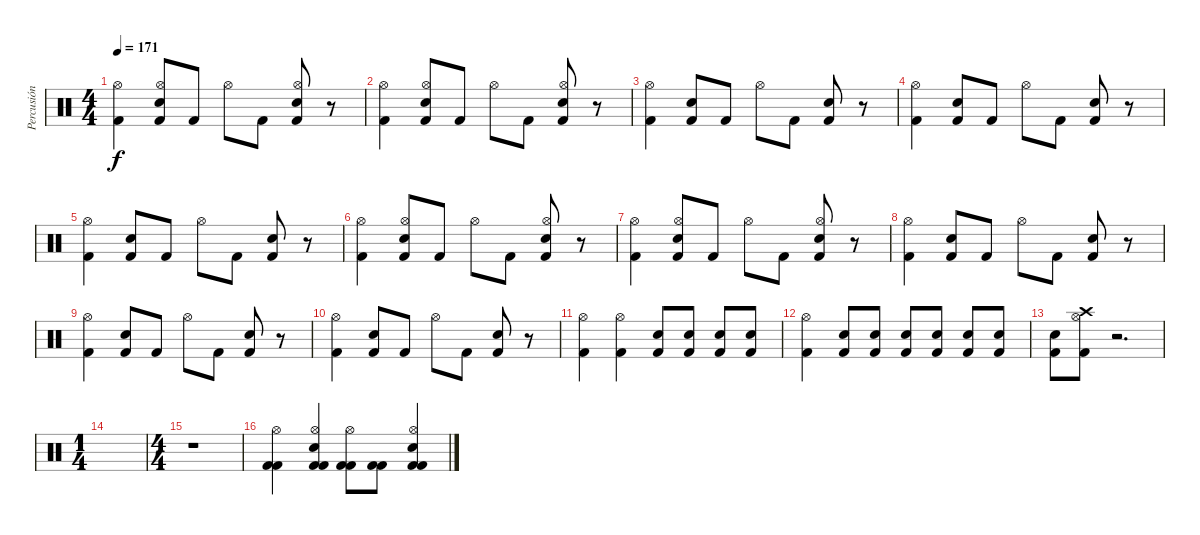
\track ("Percusión" "Percusión") {instrument percussion}
\staff {score}
\articulation defaults
\ts (4 4)
\tempo 171
\clef neutral
\ks c
("Kick (hit) 2" "Hi-Hat (open)").4{dy f} ("Kick (hit) 2" "Electric Snare (hit)" "Hi-Hat (open)").8 "Kick (hit) 2".8 "Hi-Hat (open)".8 "Kick (hit) 2".8 ("Kick (hit) 2" "Electric Snare (hit)" "Hi-Hat (open)").8 r.8 |
("Kick (hit) 2" "Hi-Hat (open)").4 ("Kick (hit) 2" "Electric Snare (hit)" "Hi-Hat (open)").8 "Kick (hit) 2".8 "Hi-Hat (open)".8 "Kick (hit) 2".8 ("Kick (hit) 2" "Electric Snare (hit)" "Hi-Hat (open)").8 r.8 |
("Kick (hit) 2" "Hi-Hat (open)").4 ("Kick (hit) 2" "Electric Snare (hit)").8 "Kick (hit) 2".8 "Hi-Hat (open)".8 "Kick (hit) 2".8 ("Kick (hit) 2" "Electric Snare (hit)").8 r.8 |
("Kick (hit) 2" "Hi-Hat (open)").4 ("Kick (hit) 2" "Electric Snare (hit)").8 "Kick (hit) 2".8 "Hi-Hat (open)".8 "Kick (hit) 2".8 ("Kick (hit) 2" "Electric Snare (hit)").8 r.8 |
("Kick (hit) 2" "Hi-Hat (open)").4 ("Kick (hit) 2" "Electric Snare (hit)").8 "Kick (hit) 2".8 "Hi-Hat (open)".8 "Kick (hit) 2".8 ("Kick (hit) 2" "Electric Snare (hit)").8 r.8 |
("Kick (hit) 2" "Hi-Hat (open)").4 ("Kick (hit) 2" "Electric Snare (hit)" "Hi-Hat (open)").8 "Kick (hit) 2".8 "Hi-Hat (open)".8 "Kick (hit) 2".8 ("Kick (hit) 2" "Electric Snare (hit)" "Hi-Hat (open)").8 r.8 |
("Kick (hit) 2" "Hi-Hat (open)").4 ("Kick (hit) 2" "Electric Snare (hit)" "Hi-Hat (open)").8 "Kick (hit) 2".8 "Hi-Hat (open)".8 "Kick (hit) 2".8 ("Kick (hit) 2" "Electric Snare (hit)" "Hi-Hat (open)").8 r.8 |
("Kick (hit) 2" "Hi-Hat (open)").4 ("Kick (hit) 2" "Electric Snare (hit)").8 "Kick (hit) 2".8 "Hi-Hat (open)".8 "Kick (hit) 2".8 ("Kick (hit) 2" "Electric Snare (hit)").8 r.8 |
("Kick (hit) 2" "Hi-Hat (open)").4 ("Kick (hit) 2" "Electric Snare (hit)").8 "Kick (hit) 2".8 "Hi-Hat (open)".8 "Kick (hit) 2".8 ("Kick (hit) 2" "Electric Snare (hit)").8 r.8 |
("Kick (hit) 2" "Hi-Hat (open)").4 ("Kick (hit) 2" "Electric Snare (hit)").8 "Kick (hit) 2".8 "Hi-Hat (open)".8 "Kick (hit) 2".8 ("Kick (hit) 2" "Electric Snare (hit)").8 r.8 |
("Kick (hit) 2" "Hi-Hat (open)").4 ("Kick (hit) 2" "Hi-Hat (open)").4 ("Kick (hit) 2" "Electric Snare (hit)").8 ("Kick (hit) 2" "Electric Snare (hit)").8 ("Kick (hit) 2" "Electric Snare (hit)").8 ("Kick (hit) 2" "Electric Snare (hit)").8 |
("Kick (hit) 2" "Hi-Hat (open)").4 ("Kick (hit) 2" "Electric Snare (hit)").8 ("Kick (hit) 2" "Electric Snare (hit)").8 ("Kick (hit) 2" "Electric Snare (hit)").8 ("Kick (hit) 2" "Electric Snare (hit)").8 ("Kick (hit) 2" "Electric Snare (hit)").8 ("Kick (hit) 2" "Electric Snare (hit)").8 |
("Kick (hit) 2" "Electric Snare (hit)").8 ("Kick (hit) 2" "Hi-Hat (open)" "Crash high (hit)").8 r.2{d} |
\ts (1 4)
|
\ts (4 4)
r.1 |
("Kick (hit) 2" "Kick (hit) 2" "Hi-Hat (open)").4 ("Kick (hit) 2" "Kick (hit) 2" "Electric Snare (hit)" "Hi-Hat (open)").4 ("Kick (hit) 2" "Kick (hit) 2" "Hi-Hat (open)").8 ("Kick (hit) 2" "Kick (hit) 2").8 ("Kick (hit) 2" "Kick (hit) 2" "Electric Snare (hit)" "Hi-Hat (open)").4
